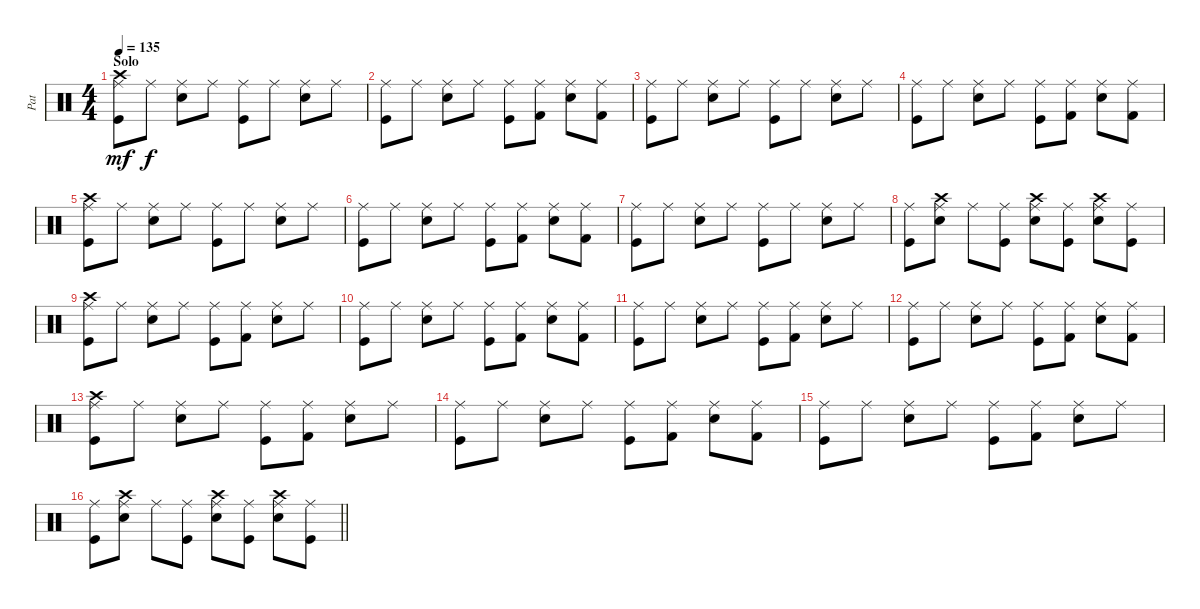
\track ("Pat" "Pat") {instrument percussion}
\staff {score}
\articulation defaults
\ts (4 4)
\section ("" "Solo")
\tempo 135
\clef neutral
\ks c
("Crash high (hit)" "Ride (middle)" "Kick (hit)").8{dy mf} "Ride (middle)".8{dy f} ("Ride (middle)" "Snare (hit) 2").8 "Ride (middle)".8 ("Ride (middle)" "Kick (hit)").8 "Ride (middle)".8 ("Ride (middle)" "Snare (hit) 2").8 "Ride (middle)".8 |
("Ride (middle)" "Kick (hit)").8 "Ride (middle)".8 ("Ride (middle)" "Snare (hit) 2").8 "Ride (middle)".8 ("Ride (middle)" "Kick (hit)").8 ("Ride (middle)" "Kick (hit) 2").8 ("Ride (middle)" "Snare (hit) 2").8 ("Ride (middle)" "Kick (hit) 2").8 |
("Ride (middle)" "Kick (hit)").8 "Ride (middle)".8 ("Ride (middle)" "Snare (hit) 2").8 "Ride (middle)".8 ("Ride (middle)" "Kick (hit)").8 "Ride (middle)".8 ("Ride (middle)" "Snare (hit) 2").8 "Ride (middle)".8 |
("Ride (middle)" "Kick (hit)").8 "Ride (middle)".8 ("Ride (middle)" "Snare (hit) 2").8 "Ride (middle)".8 ("Ride (middle)" "Kick (hit)").8 ("Ride (middle)" "Kick (hit) 2").8 ("Ride (middle)" "Snare (hit) 2").8 ("Ride (middle)" "Kick (hit) 2").8 |
("Crash high (hit)" "Ride (middle)" "Kick (hit)").8 "Ride (middle)".8 ("Ride (middle)" "Snare (hit) 2").8 "Ride (middle)".8 ("Ride (middle)" "Kick (hit)").8 "Ride (middle)".8 ("Ride (middle)" "Snare (hit) 2").8 "Ride (middle)".8 |
("Ride (middle)" "Kick (hit)").8 "Ride (middle)".8 ("Ride (middle)" "Snare (hit) 2").8 "Ride (middle)".8 ("Ride (middle)" "Kick (hit)").8 ("Ride (middle)" "Kick (hit) 2").8 ("Ride (middle)" "Snare (hit) 2").8 ("Ride (middle)" "Kick (hit) 2").8 |
("Ride (middle)" "Kick (hit)").8 "Ride (middle)".8 ("Ride (middle)" "Snare (hit) 2").8 "Ride (middle)".8 ("Ride (middle)" "Kick (hit)").8 "Ride (middle)".8 ("Ride (middle)" "Snare (hit) 2").8 "Ride (middle)".8 |
("Ride (middle)" "Kick (hit)").8 ("Crash high (hit)" "Ride (middle)" "Snare (hit) 2").8 "Ride (middle)".8 ("Ride (middle)" "Kick (hit)").8 ("Crash high (hit)" "Ride (middle)" "Snare (hit) 2").8 ("Ride (middle)" "Kick (hit)").8 ("Crash high (hit)" "Ride (middle)" "Snare (hit) 2").8 ("Ride (middle)" "Kick (hit)").8 |
("Crash high (hit)" "Ride (middle)" "Kick (hit)").8 "Ride (middle)".8 ("Ride (middle)" "Snare (hit) 2").8 "Ride (middle)".8 ("Ride (middle)" "Kick (hit)").8 ("Ride (middle)" "Kick (hit) 2").8 ("Ride (middle)" "Snare (hit) 2").8 "Ride (middle)".8 |
("Ride (middle)" "Kick (hit)").8 "Ride (middle)".8 ("Ride (middle)" "Snare (hit) 2").8 "Ride (middle)".8 ("Ride (middle)" "Kick (hit)").8 ("Ride (middle)" "Kick (hit) 2").8 ("Ride (middle)" "Snare (hit) 2").8 ("Ride (middle)" "Kick (hit) 2").8 |
("Ride (middle)" "Kick (hit)").8 "Ride (middle)".8 ("Ride (middle)" "Snare (hit) 2").8 "Ride (middle)".8 ("Ride (middle)" "Kick (hit)").8 ("Ride (middle)" "Kick (hit) 2").8 ("Ride (middle)" "Snare (hit) 2").8 "Ride (middle)".8 |
("Ride (middle)" "Kick (hit)").8 "Ride (middle)".8 ("Ride (middle)" "Snare (hit) 2").8 "Ride (middle)".8 ("Ride (middle)" "Kick (hit)").8 ("Ride (middle)" "Kick (hit) 2").8 ("Ride (middle)" "Snare (hit) 2").8 ("Ride (middle)" "Kick (hit) 2").8 |
("Crash high (hit)" "Ride (middle)" "Kick (hit)").8 "Ride (middle)".8 ("Ride (middle)" "Snare (hit) 2").8 "Ride (middle)".8 ("Ride (middle)" "Kick (hit)").8 ("Ride (middle)" "Kick (hit) 2").8 ("Ride (middle)" "Snare (hit) 2").8 "Ride (middle)".8 |
("Ride (middle)" "Kick (hit)").8 "Ride (middle)".8 ("Ride (middle)" "Snare (hit) 2").8 "Ride (middle)".8 ("Ride (middle)" "Kick (hit)").8 ("Ride (middle)" "Kick (hit) 2").8 ("Ride (middle)" "Snare (hit) 2").8 ("Ride (middle)" "Kick (hit) 2").8 |
("Ride (middle)" "Kick (hit)").8 "Ride (middle)".8 ("Ride (middle)" "Snare (hit) 2").8 "Ride (middle)".8 ("Ride (middle)" "Kick (hit)").8 ("Ride (middle)" "Kick (hit) 2").8 ("Ride (middle)" "Snare (hit) 2").8 "Ride (middle)".8 |
\barLineRight lightlight
("Ride (middle)" "Kick (hit)").8 ("Crash high (hit)" "Ride (middle)" "Snare (hit) 2").8 "Ride (middle)".8 ("Ride (middle)" "Kick (hit)").8 ("Crash high (hit)" "Ride (middle)" "Snare (hit) 2").8 ("Ride (middle)" "Kick (hit)").8 ("Crash high (hit)" "Ride (middle)" "Snare (hit) 2").8 ("Ride (middle)" "Kick (hit)").8
